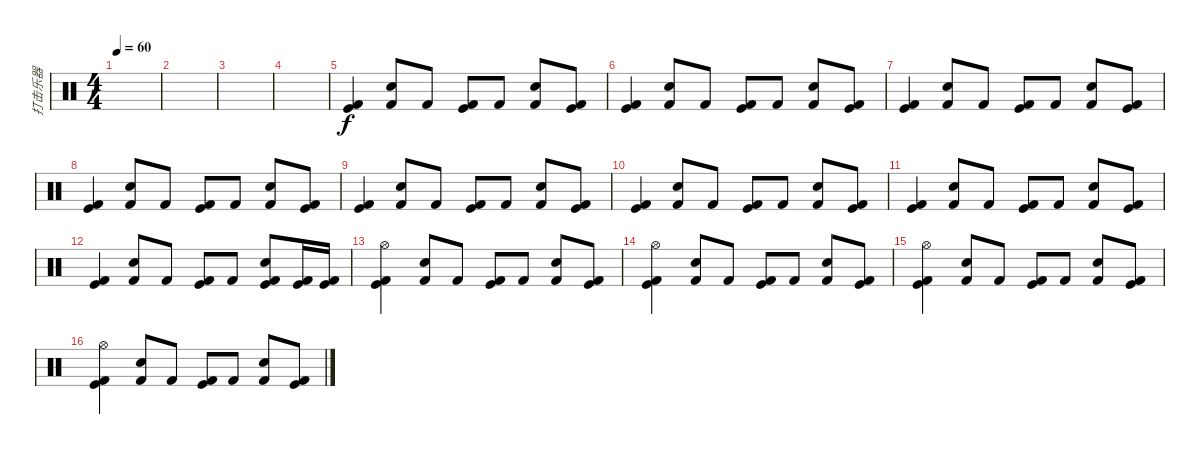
\track ("打击乐器" "打击乐器") {instrument percussion}
\staff {score}
\articulation defaults
\ts (4 4)
\tempo 60
\clef neutral
\ks c
|
|
|
|
("Kick (hit) 2" "Kick (hit)").4 ("Kick (hit) 2" "Electric Snare (hit)").8 "Kick (hit) 2".8 ("Kick (hit) 2" "Kick (hit)").8 "Kick (hit) 2".8 ("Kick (hit) 2" "Electric Snare (hit)").8 ("Kick (hit) 2" "Kick (hit)").8 |
("Kick (hit) 2" "Kick (hit)").4 ("Kick (hit) 2" "Electric Snare (hit)").8 "Kick (hit) 2".8 ("Kick (hit) 2" "Kick (hit)").8 "Kick (hit) 2".8 ("Kick (hit) 2" "Electric Snare (hit)").8 ("Kick (hit) 2" "Kick (hit)").8 |
("Kick (hit) 2" "Kick (hit)").4 ("Kick (hit) 2" "Electric Snare (hit)").8 "Kick (hit) 2".8 ("Kick (hit) 2" "Kick (hit)").8 "Kick (hit) 2".8 ("Kick (hit) 2" "Electric Snare (hit)").8 ("Kick (hit) 2" "Kick (hit)").8 |
("Kick (hit) 2" "Kick (hit)").4 ("Kick (hit) 2" "Electric Snare (hit)").8 "Kick (hit) 2".8 ("Kick (hit) 2" "Kick (hit)").8 "Kick (hit) 2".8 ("Kick (hit) 2" "Electric Snare (hit)").8 ("Kick (hit) 2" "Kick (hit)").8 |
("Kick (hit) 2" "Kick (hit)").4 ("Kick (hit) 2" "Electric Snare (hit)").8 "Kick (hit) 2".8 ("Kick (hit) 2" "Kick (hit)").8 "Kick (hit) 2".8 ("Kick (hit) 2" "Electric Snare (hit)").8 ("Kick (hit) 2" "Kick (hit)").8 |
("Kick (hit) 2" "Kick (hit)").4 ("Kick (hit) 2" "Electric Snare (hit)").8 "Kick (hit) 2".8 ("Kick (hit) 2" "Kick (hit)").8 "Kick (hit) 2".8 ("Kick (hit) 2" "Electric Snare (hit)").8 ("Kick (hit) 2" "Kick (hit)").8 |
("Kick (hit) 2" "Kick (hit)").4 ("Kick (hit) 2" "Electric Snare (hit)").8 "Kick (hit) 2".8 ("Kick (hit) 2" "Kick (hit)").8 "Kick (hit) 2".8 ("Kick (hit) 2" "Electric Snare (hit)").8 ("Kick (hit) 2" "Kick (hit)").8 |
("Kick (hit) 2" "Kick (hit)").4 ("Kick (hit) 2" "Electric Snare (hit)").8 "Kick (hit) 2".8 ("Kick (hit) 2" "Kick (hit)").8 "Kick (hit) 2".8 ("Kick (hit) 2" "Kick (hit)" "Electric Snare (hit)").8 ("Kick (hit) 2" "Kick (hit)").16 ("Kick (hit) 2" "Kick (hit)").16 |
("Kick (hit) 2" "Kick (hit)" "Hi-Hat (open)").4 ("Kick (hit) 2" "Electric Snare (hit)").8 "Kick (hit) 2".8 ("Kick (hit) 2" "Kick (hit)").8 "Kick (hit) 2".8 ("Kick (hit) 2" "Electric Snare (hit)").8 ("Kick (hit) 2" "Kick (hit)").8 |
("Kick (hit) 2" "Kick (hit)" "Hi-Hat (open)").4 ("Kick (hit) 2" "Electric Snare (hit)").8 "Kick (hit) 2".8 ("Kick (hit) 2" "Kick (hit)").8 "Kick (hit) 2".8 ("Kick (hit) 2" "Electric Snare (hit)").8 ("Kick (hit) 2" "Kick (hit)").8 |
("Kick (hit) 2" "Kick (hit)" "Hi-Hat (open)").4 ("Kick (hit) 2" "Electric Snare (hit)").8 "Kick (hit) 2".8 ("Kick (hit) 2" "Kick (hit)").8 "Kick (hit) 2".8 ("Kick (hit) 2" "Electric Snare (hit)").8 ("Kick (hit) 2" "Kick (hit)").8 |
("Kick (hit) 2" "Kick (hit)" "Hi-Hat (open)").4 ("Kick (hit) 2" "Electric Snare (hit)").8 "Kick (hit) 2".8 ("Kick (hit) 2" "Kick (hit)").8 "Kick (hit) 2".8 ("Kick (hit) 2" "Electric Snare (hit)").8 ("Kick (hit) 2" "Kick (hit)").8
